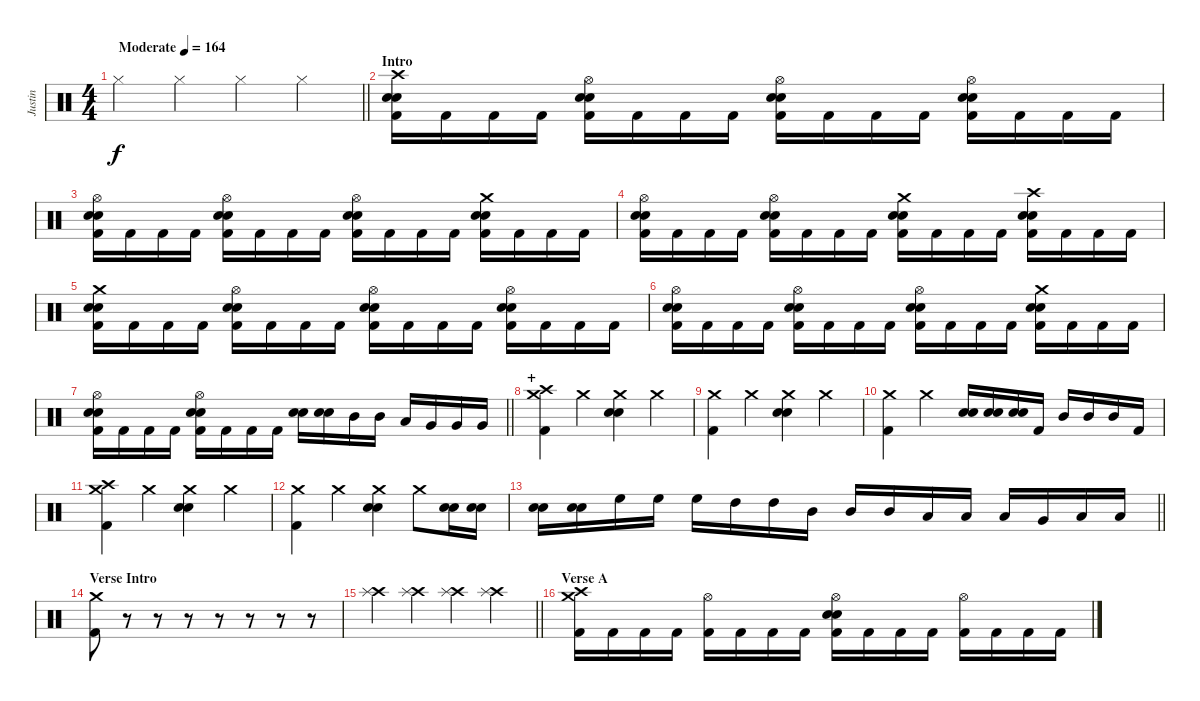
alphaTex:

\track ("Justin" "Justin") {instrument percussion}
\staff {score}
\articulation defaults
\ts (4 4)
\tempo (164 "Moderate")
\clef neutral
\barLineRight lightlight
\ks c "Hi-Hat (closed)".4{dy f} "Hi-Hat (closed)".4 "Hi-Hat (closed)".4 "Hi-Hat (closed)".4
|
\section ("" "Intro")
("Crash high (hit)" "Electric Snare (hit)" "Snare (hit) 2" "Kick (hit) 2").16 "Kick (hit) 2".16 "Kick (hit) 2".16 "Kick (hit) 2".16 ("Hi-Hat (open)" "Electric Snare (hit)" "Snare (hit) 2" "Kick (hit) 2").16 "Kick (hit) 2".16 "Kick (hit) 2".16 "Kick (hit) 2".16 ("Hi-Hat (open)" "Electric Snare (hit)" "Snare (hit) 2" "Kick (hit) 2").16 "Kick (hit) 2".16 "Kick (hit) 2".16 "Kick (hit) 2".16 ("Hi-Hat (open)" "Electric Snare (hit)" "Snare (hit) 2" "Kick (hit) 2").16 "Kick (hit) 2".16 "Kick (hit) 2".16 "Kick (hit) 2".16 |
("Hi-Hat (open)" "Electric Snare (hit)" "Snare (hit) 2" "Kick (hit) 2").16 "Kick (hit) 2".16 "Kick (hit) 2".16 "Kick (hit) 2".16 ("Hi-Hat (open)" "Electric Snare (hit)" "Snare (hit) 2" "Kick (hit) 2").16 "Kick (hit) 2".16 "Kick (hit) 2".16 "Kick (hit) 2".16 ("Hi-Hat (open)" "Electric Snare (hit)" "Snare (hit) 2" "Kick (hit) 2").16 "Kick (hit) 2".16 "Kick (hit) 2".16 "Kick (hit) 2".16 ("Crash medium (hit)" "Electric Snare (hit)" "Snare (hit) 2" "Kick (hit) 2").16 "Kick (hit) 2".16 "Kick (hit) 2".16 "Kick (hit) 2".16 |
("Hi-Hat (open)" "Electric Snare (hit)" "Snare (hit) 2" "Kick (hit) 2").16 "Kick (hit) 2".16 "Kick (hit) 2".16 "Kick (hit) 2".16 ("Hi-Hat (open)" "Electric Snare (hit)" "Snare (hit) 2" "Kick (hit) 2").16 "Kick (hit) 2".16 "Kick (hit) 2".16 "Kick (hit) 2".16 ("Crash medium (hit)" "Electric Snare (hit)" "Snare (hit) 2" "Kick (hit) 2").16 "Kick (hit) 2".16 "Kick (hit) 2".16 "Kick (hit) 2".16 ("Crash high (hit)" "Electric Snare (hit)" "Snare (hit) 2" "Kick (hit) 2").16 "Kick (hit) 2".16 "Kick (hit) 2".16 "Kick (hit) 2".16 |
("Crash medium (hit)" "Electric Snare (hit)" "Snare (hit) 2" "Kick (hit) 2").16 "Kick (hit) 2".16 "Kick (hit) 2".16 "Kick (hit) 2".16 ("Hi-Hat (open)" "Electric Snare (hit)" "Snare (hit) 2" "Kick (hit) 2").16 "Kick (hit) 2".16 "Kick (hit) 2".16 "Kick (hit) 2".16 ("Hi-Hat (open)" "Electric Snare (hit)" "Snare (hit) 2" "Kick (hit) 2").16 "Kick (hit) 2".16 "Kick (hit) 2".16 "Kick (hit) 2".16 ("Hi-Hat (open)" "Electric Snare (hit)" "Snare (hit) 2" "Kick (hit) 2").16 "Kick (hit) 2".16 "Kick (hit) 2".16 "Kick (hit) 2".16 |
("Hi-Hat (open)" "Electric Snare (hit)" "Snare (hit) 2" "Kick (hit) 2").16 "Kick (hit) 2".16 "Kick (hit) 2".16 "Kick (hit) 2".16 ("Hi-Hat (open)" "Electric Snare (hit)" "Snare (hit) 2" "Kick (hit) 2").16 "Kick (hit) 2".16 "Kick (hit) 2".16 "Kick (hit) 2".16 ("Hi-Hat (open)" "Electric Snare (hit)" "Snare (hit) 2" "Kick (hit) 2").16 "Kick (hit) 2".16 "Kick (hit) 2".16 "Kick (hit) 2".16 ("Crash medium (hit)" "Electric Snare (hit)" "Snare (hit) 2" "Kick (hit) 2").16 "Kick (hit) 2".16 "Kick (hit) 2".16 "Kick (hit) 2".16 |
\barLineRight lightlight
("Hi-Hat (open)" "Electric Snare (hit)" "Snare (hit) 2" "Kick (hit) 2").16 "Kick (hit) 2".16 "Kick (hit) 2".16 "Kick (hit) 2".16 ("Hi-Hat (open)" "Electric Snare (hit)" "Snare (hit) 2" "Kick (hit) 2").16 "Kick (hit) 2".16 "Kick (hit) 2".16 "Kick (hit) 2".16 ("Electric Snare (hit)" "Snare (hit) 2").16 ("Electric Snare (hit)" "Snare (hit) 2").16 "Mid Tom (hit)".16 "Mid Tom (hit)".16 "Low Tom (hit)".16 "Very Low Tom (hit)".16 "Very Low Tom (hit)".16 "Very Low Tom (hit)".16 |
\section ("" "+")
("Crash medium (hit)" "Crash high (hit)" "Kick (hit) 2").4 "Crash medium (hit)".4 ("Crash medium (hit)" "Electric Snare (hit)" "Snare (hit) 2").4 "Crash medium (hit)".4 |
("Crash medium (hit)" "Kick (hit) 2").4 "Crash medium (hit)".4 ("Crash medium (hit)" "Electric Snare (hit)" "Snare (hit) 2").4 "Crash medium (hit)".4 |
("Crash medium (hit)" "Kick (hit) 2").4 "Crash medium (hit)".4 ("Electric Snare (hit)" "Snare (hit) 2").16 ("Electric Snare (hit)" "Snare (hit) 2").16 ("Electric Snare (hit)" "Snare (hit) 2").16 "Kick (hit) 2".16 "Mid Tom (hit)".16 "Mid Tom (hit)".16 "Mid Tom (hit)".16 "Kick (hit) 2".16 |
("Crash medium (hit)" "Crash high (hit)" "Kick (hit) 2").4 "Crash medium (hit)".4 ("Crash medium (hit)" "Electric Snare (hit)" "Snare (hit) 2").4 "Crash medium (hit)".4 |
("Crash medium (hit)" "Kick (hit) 2").4 "Crash medium (hit)".4 ("Crash medium (hit)" "Electric Snare (hit)" "Snare (hit) 2").4 "Crash medium (hit)".8 ("Electric Snare (hit)" "Snare (hit) 2").16 ("Electric Snare (hit)" "Snare (hit) 2").16 |
\barLineRight lightlight
("Electric Snare (hit)" "Snare (hit) 2").16 ("Electric Snare (hit)" "Snare (hit) 2").16 "High Floor Tom (hit)".16 "High Floor Tom (hit)".16 "High Floor Tom (hit)".16 "High Tom (hit)".16 "High Tom (hit)".16 "Mid Tom (hit)".16 "Mid Tom (hit)".16 "Mid Tom (hit)".16 "Low Tom (hit)".16 "Low Tom (hit)".16 "Low Tom (hit)".16 "Very Low Tom (hit)".16 "Low Floor Tom (hit)".16 "Low Floor Tom (hit)".16 |
\section ("" "Verse Intro")
("Crash medium (hit)" "Kick (hit) 2").8 r.8 r.8{volume 0} r.8 r.8 r.8 r.8 r.8 |
\barLineRight lightlight
("Crash high (hit)" "Splash (hit)").4{volume 16} ("Crash high (hit)" "Splash (hit)").4 ("Crash high (hit)" "Splash (hit)").4 ("Crash high (hit)" "Splash (hit)").4 |
\section ("" "Verse A")
("Crash medium (hit)" "Crash high (hit)" "Kick (hit) 2").16 "Kick (hit) 2".16 "Kick (hit) 2".16 "Kick (hit) 2".16 ("Hi-Hat (open)" "Kick (hit) 2").16 "Kick (hit) 2".16 "Kick (hit) 2".16 "Kick (hit) 2".16 ("Hi-Hat (open)" "Electric Snare (hit)" "Snare (hit) 2" "Kick (hit) 2").16 "Kick (hit) 2".16 "Kick (hit) 2".16 "Kick (hit) 2".16 ("Hi-Hat (open)" "Kick (hit) 2").16 "Kick (hit) 2".16 "Kick (hit) 2".16 "Kick (hit) 2".16
